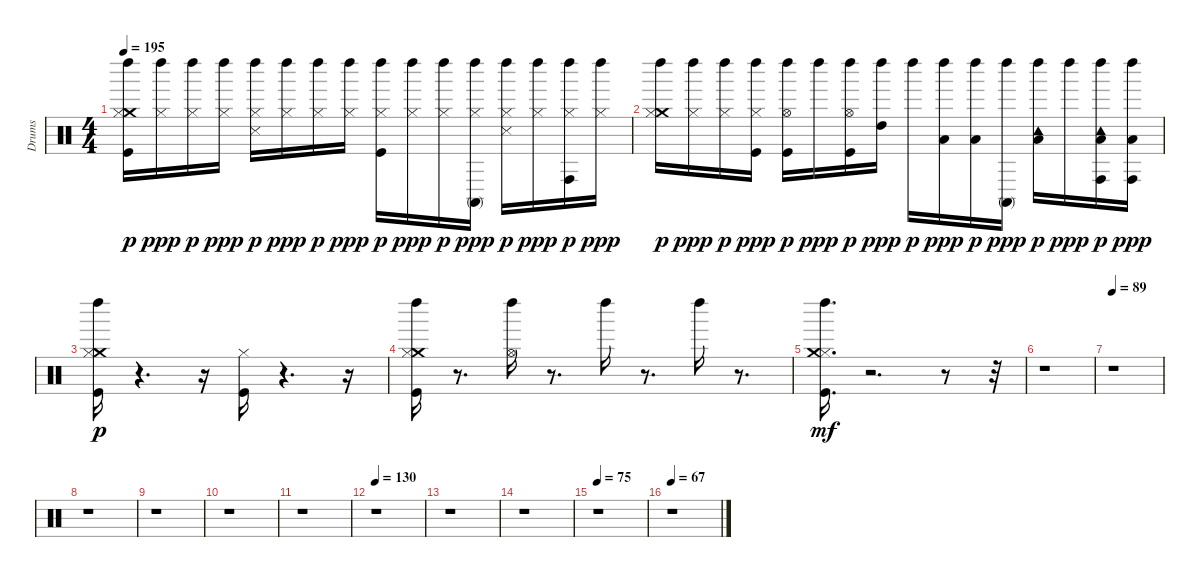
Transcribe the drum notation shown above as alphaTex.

\track ("Drums" "Drums") {instrument percussion}
\staff {score}
\articulation defaults
\ts (4 4)
\tempo 195
\clef neutral
\ks c
("Crash medium (hit)" "Kick (hit)" "Hi-Hat (closed)" "Left Maraca (hit)").16{dy p} ("Hi-Hat (closed)" "Left Maraca (hit)").16{dy ppp} ("Hi-Hat (closed)" "Left Maraca (hit)").16{dy p} ("Hi-Hat (closed)" "Left Maraca (hit)").16{dy ppp} ("Hi-Hat (closed)" "Snare (side stick) 3" "Left Maraca (hit)").16{dy p} ("Hi-Hat (closed)" "Left Maraca (hit)").16{dy ppp} ("Hi-Hat (closed)" "Left Maraca (hit)").16{dy p} ("Hi-Hat (closed)" "Left Maraca (hit)").16{dy ppp} ("Kick (hit)" "Hi-Hat (closed)" "Left Maraca (hit)").16{dy p} ("Hi-Hat (closed)" "Left Maraca (hit)").16{dy ppp} ("Hi-Hat (closed)" "Left Maraca (hit)").16{dy p} ("Hi-Hat (closed)" "Conga high (mute)" "Left Maraca (hit)").16{dy ppp} ("Hi-Hat (closed)" "Snare (side stick) 3" "Left Maraca (hit)").16{dy p} ("Hi-Hat (closed)" "Left Maraca (hit)").16{dy ppp} ("Hi-Hat (closed)" "Conga high (hit)" "Left Maraca (hit)").16{dy p} ("Hi-Hat (closed)" "Left Maraca (hit)").16{dy ppp} |
("Crash medium (hit)" "Hi-Hat (closed)" "Left Maraca (hit)").16{dy p} ("Hi-Hat (closed)" "Left Maraca (hit)").16{dy ppp} ("Hi-Hat (closed)" "Left Maraca (hit)").16{dy p} ("Kick (hit)" "Hi-Hat (closed)" "Left Maraca (hit)").16{dy ppp} ("Kick (hit)" "Hi-Hat (open)" "Left Maraca (hit)").16{dy p} "Left Maraca (hit)".16{dy ppp} ("Kick (hit)" "Hi-Hat (open)" "Left Maraca (hit)").16{dy p} ("High Tom (hit)" "Left Maraca (hit)").16{dy ppp} "Left Maraca (hit)".16{dy p} ("Low Tom (hit)" "Left Maraca (hit)").16{dy ppp} ("Low Tom (hit)" "Left Maraca (hit)").16{dy p} ("Conga high (mute)" "Left Maraca (hit)").16{dy ppp} ("Low Tom (hit)" "Tambourine (hit)" "Left Maraca (hit)").16{dy p} "Left Maraca (hit)".16{dy ppp} ("Low Floor Tom (hit)" "Conga high (hit)" "Tambourine (hit)" "Left Maraca (hit)").16{dy p} ("Low Floor Tom (hit)" "Conga high (hit)" "Left Maraca (hit)").16{dy ppp} |
("Crash medium (hit)" "Kick (hit)" "Hi-Hat (closed)" "Left Maraca (hit)").16{dy p} r.4{d} r.16 ("Kick (hit)" "Hi-Hat (closed)").16 r.4{d} r.16 |
("Kick (hit)" "Crash medium (hit)" "Hi-Hat (closed)" "Left Maraca (hit)").16 r.8{d} ("Hi-Hat (open)" "Left Maraca (hit)").16 r.8{d} "Left Maraca (hit)".16 r.8{d} "Left Maraca (hit)".16 r.8{d} |
("Hi-Hat (closed)" "Kick (hit)" "Crash medium (hit)" "Left Maraca (hit)").16{d dy mf} r.2{d} r.8 r.32 |
r.1 |
\tempo 89
r.1 |
r.1 |
r.1 |
r.1 |
r.1 |
\tempo 130
r.1 |
r.1 |
r.1 |
\tempo 75
r.1 |
\tempo 67
r.1
